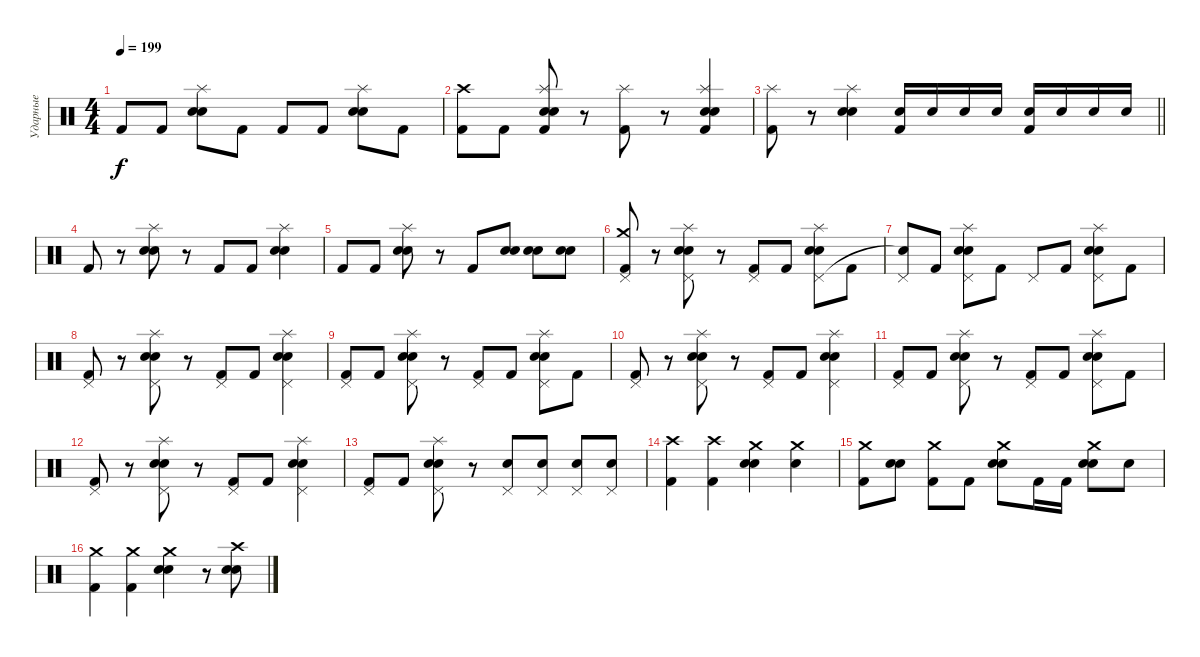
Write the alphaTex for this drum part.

\track ("Ударные" "Ударные") {instrument percussion}
\staff {score}
\articulation defaults
\ts (4 4)
\tempo 199
\clef neutral
\ks c "Kick (hit) 2".8{dy f} "Kick (hit) 2".8
("Splash (hit)" "Electric Snare (hit)" "Snare (hit) 2").8 "Kick (hit) 2".8 "Kick (hit) 2".8 "Kick (hit) 2".8 ("Splash (hit)" "Electric Snare (hit)" "Snare (hit) 2").8 "Kick (hit) 2".8 |
("Crash high (hit)" "Kick (hit) 2").8 "Kick (hit) 2".8 ("Splash (hit)" "Electric Snare (hit)" "Snare (hit) 2" "Kick (hit) 2").8 r.8 ("Splash (hit)" "Kick (hit) 2").8 r.8 ("Splash (hit)" "Electric Snare (hit)" "Snare (hit) 2" "Kick (hit) 2").4 |
\barLineRight lightlight
("Splash (hit)" "Kick (hit) 2").8 r.8 ("Splash (hit)" "Electric Snare (hit)" "Snare (hit) 2").4 ("Electric Snare (hit)" "Kick (hit) 2").16 "Electric Snare (hit)".16 "Electric Snare (hit)".16 "Electric Snare (hit)".16 ("Electric Snare (hit)" "Kick (hit) 2").16 "Electric Snare (hit)".16 "Electric Snare (hit)".16 "Electric Snare (hit)".16 |
"Kick (hit) 2".8 r.8 ("Splash (hit)" "Electric Snare (hit)" "Snare (hit) 2").8 r.8 "Kick (hit) 2".8 "Kick (hit) 2".8 ("Splash (hit)" "Electric Snare (hit)" "Snare (hit) 2").4 |
"Kick (hit) 2".8 "Kick (hit) 2".8 ("Splash (hit)" "Electric Snare (hit)" "Snare (hit) 2").8 r.8 "Kick (hit) 2".8 ("Electric Snare (hit)" "Snare (hit) 2").8 ("Electric Snare (hit)" "Snare (hit) 2").8 ("Electric Snare (hit)" "Snare (hit) 2").8 |
("Crash medium (hit)" "Pedal Hi-Hat (hit)" "Kick (hit) 2").8 r.8 ("Splash (hit)" "Pedal Hi-Hat (hit)" "Electric Snare (hit)" "Snare (hit) 2").8 r.8 ("Pedal Hi-Hat (hit)" "Kick (hit) 2").8 "Kick (hit) 2".8 ("Splash (hit)" "Pedal Hi-Hat (hit)" "Electric Snare (hit)" "Snare (hit) 2").8 "Kick (hit) 2".8 |
("Pedal Hi-Hat (hit)" "Snare (hit)"{t}).8 "Kick (hit) 2".8 ("Splash (hit)" "Pedal Hi-Hat (hit)" "Electric Snare (hit)" "Snare (hit) 2").8 "Kick (hit) 2".8 "Pedal Hi-Hat (hit)".8 "Kick (hit) 2".8 ("Splash (hit)" "Pedal Hi-Hat (hit)" "Electric Snare (hit)" "Snare (hit) 2").8 "Kick (hit) 2".8 |
("Pedal Hi-Hat (hit)" "Kick (hit) 2").8 r.8 ("Pedal Hi-Hat (hit)" "Splash (hit)" "Electric Snare (hit)" "Snare (hit) 2").8 r.8 ("Pedal Hi-Hat (hit)" "Kick (hit) 2").8 "Kick (hit) 2".8 ("Pedal Hi-Hat (hit)" "Splash (hit)" "Electric Snare (hit)" "Snare (hit) 2").4 |
("Pedal Hi-Hat (hit)" "Kick (hit) 2").8 "Kick (hit) 2".8 ("Pedal Hi-Hat (hit)" "Splash (hit)" "Electric Snare (hit)" "Snare (hit) 2").8 r.8 ("Pedal Hi-Hat (hit)" "Kick (hit) 2").8 "Kick (hit) 2".8 ("Pedal Hi-Hat (hit)" "Splash (hit)" "Electric Snare (hit)" "Snare (hit) 2").8 "Kick (hit) 2".8 |
("Pedal Hi-Hat (hit)" "Kick (hit) 2").8 r.8 ("Pedal Hi-Hat (hit)" "Splash (hit)" "Electric Snare (hit)" "Snare (hit) 2").8 r.8 ("Pedal Hi-Hat (hit)" "Kick (hit) 2").8 "Kick (hit) 2".8 ("Pedal Hi-Hat (hit)" "Splash (hit)" "Electric Snare (hit)" "Snare (hit) 2").4 |
("Pedal Hi-Hat (hit)" "Kick (hit) 2").8 "Kick (hit) 2".8 ("Pedal Hi-Hat (hit)" "Splash (hit)" "Electric Snare (hit)" "Snare (hit) 2").8 r.8 ("Pedal Hi-Hat (hit)" "Kick (hit) 2").8 "Kick (hit) 2".8 ("Pedal Hi-Hat (hit)" "Splash (hit)" "Electric Snare (hit)" "Snare (hit) 2").8 "Kick (hit) 2".8 |
("Pedal Hi-Hat (hit)" "Kick (hit) 2").8 r.8 ("Pedal Hi-Hat (hit)" "Splash (hit)" "Electric Snare (hit)" "Snare (hit) 2").8 r.8 ("Pedal Hi-Hat (hit)" "Kick (hit) 2").8 "Kick (hit) 2".8 ("Pedal Hi-Hat (hit)" "Splash (hit)" "Electric Snare (hit)" "Snare (hit) 2").4 |
("Pedal Hi-Hat (hit)" "Kick (hit) 2").8 "Kick (hit) 2".8 ("Pedal Hi-Hat (hit)" "Splash (hit)" "Electric Snare (hit)" "Snare (hit) 2").8 r.8 ("Pedal Hi-Hat (hit)" "Electric Snare (hit)").8 ("Pedal Hi-Hat (hit)" "Electric Snare (hit)").8 ("Pedal Hi-Hat (hit)" "Electric Snare (hit)").8 ("Pedal Hi-Hat (hit)" "Electric Snare (hit)").8 |
("Crash high (hit)" "Kick (hit) 2").4 ("Crash high (hit)" "Kick (hit) 2").4 ("Crash medium (hit)" "Electric Snare (hit)" "Snare (hit) 2").4 ("Crash medium (hit)" "Electric Snare (hit)").4 |
("Crash medium (hit)" "Kick (hit) 2").8 ("Electric Snare (hit)" "Snare (hit) 2").8 ("Crash medium (hit)" "Kick (hit) 2").8 "Kick (hit) 2".8 ("Crash medium (hit)" "Electric Snare (hit)" "Snare (hit) 2").8 "Kick (hit) 2".16 "Kick (hit) 2".16 ("Crash medium (hit)" "Electric Snare (hit)" "Snare (hit) 2").8 "Electric Snare (hit)".8 |
("Crash medium (hit)" "Kick (hit) 2").4 ("Crash medium (hit)" "Kick (hit) 2").4 ("Crash medium (hit)" "Electric Snare (hit)" "Snare (hit) 2").4 r.8 ("Crash high (hit)" "Electric Snare (hit)" "Snare (hit) 2").8
